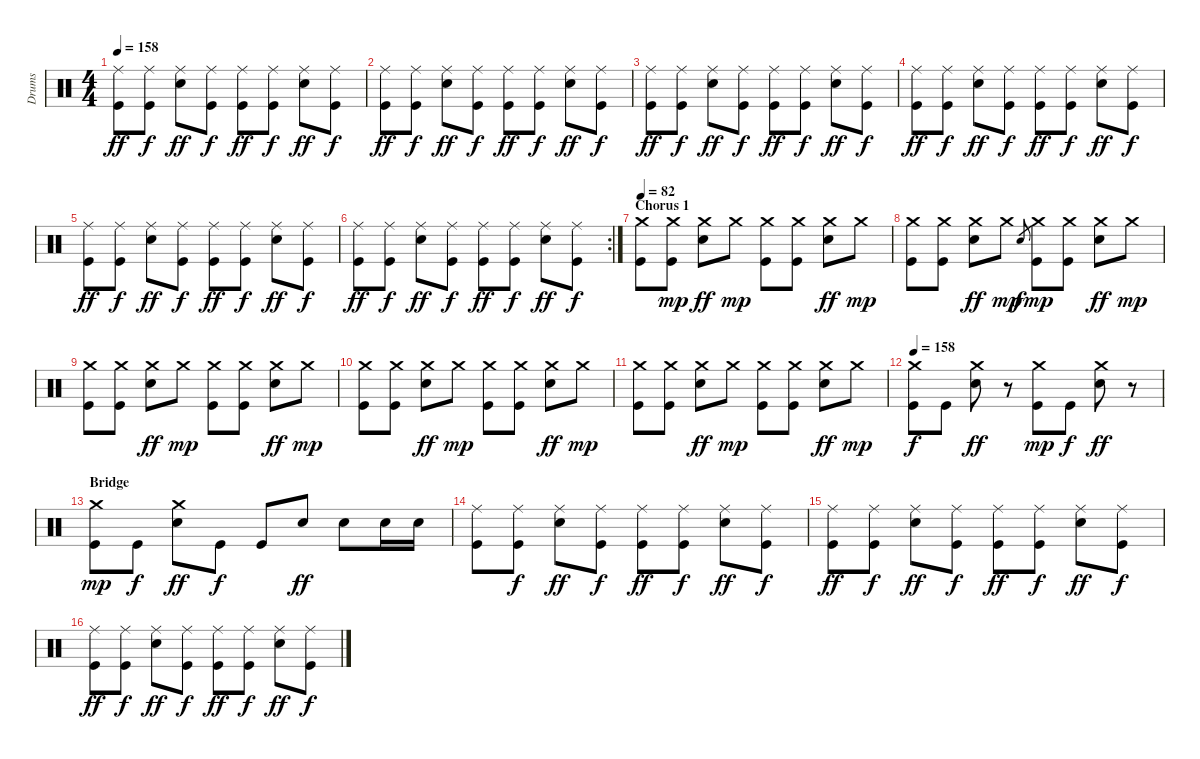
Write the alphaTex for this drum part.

\track ("Drums" "Drums") {instrument percussion}
\staff {score}
\articulation defaults
\ts (4 4)
\tempo 158
\clef neutral
\ks c
("Ride (middle)" "Kick (hit)").8{dy ff} ("Ride (middle)" "Kick (hit)").8{dy f} ("Ride (middle)" "Electric Snare (hit)").8{dy ff} ("Ride (middle)" "Kick (hit)").8{dy f} ("Ride (middle)" "Kick (hit)").8{dy ff} ("Ride (middle)" "Kick (hit)").8{dy f} ("Ride (middle)" "Electric Snare (hit)").8{dy ff} ("Ride (middle)" "Kick (hit)").8{dy f} |
("Ride (middle)" "Kick (hit)").8{dy ff} ("Ride (middle)" "Kick (hit)").8{dy f} ("Ride (middle)" "Electric Snare (hit)").8{dy ff} ("Ride (middle)" "Kick (hit)").8{dy f} ("Ride (middle)" "Kick (hit)").8{dy ff} ("Ride (middle)" "Kick (hit)").8{dy f} ("Ride (middle)" "Electric Snare (hit)").8{dy ff} ("Ride (middle)" "Kick (hit)").8{dy f} |
("Ride (middle)" "Kick (hit)").8{dy ff} ("Ride (middle)" "Kick (hit)").8{dy f} ("Ride (middle)" "Electric Snare (hit)").8{dy ff} ("Ride (middle)" "Kick (hit)").8{dy f} ("Ride (middle)" "Kick (hit)").8{dy ff} ("Ride (middle)" "Kick (hit)").8{dy f} ("Ride (middle)" "Electric Snare (hit)").8{dy ff} ("Ride (middle)" "Kick (hit)").8{dy f} |
("Ride (middle)" "Kick (hit)").8{dy ff} ("Ride (middle)" "Kick (hit)").8{dy f} ("Ride (middle)" "Electric Snare (hit)").8{dy ff} ("Ride (middle)" "Kick (hit)").8{dy f} ("Ride (middle)" "Kick (hit)").8{dy ff} ("Ride (middle)" "Kick (hit)").8{dy f} ("Ride (middle)" "Electric Snare (hit)").8{dy ff} ("Ride (middle)" "Kick (hit)").8{dy f} |
("Ride (middle)" "Kick (hit)").8{dy ff} ("Ride (middle)" "Kick (hit)").8{dy f} ("Ride (middle)" "Electric Snare (hit)").8{dy ff} ("Ride (middle)" "Kick (hit)").8{dy f} ("Ride (middle)" "Kick (hit)").8{dy ff} ("Ride (middle)" "Kick (hit)").8{dy f} ("Ride (middle)" "Electric Snare (hit)").8{dy ff} ("Ride (middle)" "Kick (hit)").8{dy f} |
\rc 2
("Ride (middle)" "Kick (hit)").8{dy ff} ("Ride (middle)" "Kick (hit)").8{dy f} ("Ride (middle)" "Electric Snare (hit)").8{dy ff} ("Ride (middle)" "Kick (hit)").8{dy f} ("Ride (middle)" "Kick (hit)").8{dy ff} ("Ride (middle)" "Kick (hit)").8{dy f} ("Ride (middle)" "Electric Snare (hit)").8{dy ff} ("Ride (middle)" "Kick (hit)").8{dy f} |
\section ("" "Chorus 1")
\tempo 82
("Crash medium (hit)" "Kick (hit)").8 ("Crash medium (hit)" "Kick (hit)").8{dy mp} ("Crash medium (hit)" "Electric Snare (hit)").8{dy ff} "Crash medium (hit)".8{dy mp} ("Crash medium (hit)" "Kick (hit)").8 ("Crash medium (hit)" "Kick (hit)").8 ("Crash medium (hit)" "Electric Snare (hit)").8{dy ff} "Crash medium (hit)".8{dy mp} |
("Crash medium (hit)" "Kick (hit)").8 ("Crash medium (hit)" "Kick (hit)").8 ("Crash medium (hit)" "Electric Snare (hit)").8{dy ff} "Crash medium (hit)".8{dy mp} "Electric Snare (hit)".8{gr dy f} ("Crash medium (hit)" "Kick (hit)").8{dy mp} ("Crash medium (hit)" "Kick (hit)").8 ("Crash medium (hit)" "Electric Snare (hit)").8{dy ff} "Crash medium (hit)".8{dy mp} |
("Crash medium (hit)" "Kick (hit)").8 ("Crash medium (hit)" "Kick (hit)").8 ("Crash medium (hit)" "Electric Snare (hit)").8{dy ff} "Crash medium (hit)".8{dy mp} ("Crash medium (hit)" "Kick (hit)").8 ("Crash medium (hit)" "Kick (hit)").8 ("Crash medium (hit)" "Electric Snare (hit)").8{dy ff} "Crash medium (hit)".8{dy mp} |
("Crash medium (hit)" "Kick (hit)").8 ("Crash medium (hit)" "Kick (hit)").8 ("Crash medium (hit)" "Electric Snare (hit)").8{dy ff} "Crash medium (hit)".8{dy mp} ("Crash medium (hit)" "Kick (hit)").8 ("Crash medium (hit)" "Kick (hit)").8 ("Crash medium (hit)" "Electric Snare (hit)").8{dy ff} "Crash medium (hit)".8{dy mp} |
("Crash medium (hit)" "Kick (hit)").8 ("Crash medium (hit)" "Kick (hit)").8 ("Crash medium (hit)" "Electric Snare (hit)").8{dy ff} "Crash medium (hit)".8{dy mp} ("Crash medium (hit)" "Kick (hit)").8 ("Crash medium (hit)" "Kick (hit)").8 ("Crash medium (hit)" "Electric Snare (hit)").8{dy ff} "Crash medium (hit)".8{dy mp} |
\tempo 158
("Crash medium (hit)" "Kick (hit)").8{dy f} "Kick (hit)".8 ("Crash medium (hit)" "Electric Snare (hit)").8{dy ff} r.8 ("Crash medium (hit)" "Kick (hit)").8{dy mp} "Kick (hit)".8{dy f} ("Crash medium (hit)" "Electric Snare (hit)").8{dy ff} r.8 |
\section ("" "Bridge")
("Crash medium (hit)" "Kick (hit)").8{dy mp} "Kick (hit)".8{dy f} ("Crash medium (hit)" "Electric Snare (hit)").8{dy ff} "Kick (hit)".8{dy f} "Kick (hit)".8 "Electric Snare (hit)".8{dy ff} "Electric Snare (hit)".8 "Electric Snare (hit)".16 "Electric Snare (hit)".16 |
("Ride (middle)" "Kick (hit)").8 ("Ride (middle)" "Kick (hit)").8{dy f} ("Ride (middle)" "Electric Snare (hit)").8{dy ff} ("Ride (middle)" "Kick (hit)").8{dy f} ("Ride (middle)" "Kick (hit)").8{dy ff} ("Ride (middle)" "Kick (hit)").8{dy f} ("Ride (middle)" "Electric Snare (hit)").8{dy ff} ("Ride (middle)" "Kick (hit)").8{dy f} |
("Ride (middle)" "Kick (hit)").8{dy ff} ("Ride (middle)" "Kick (hit)").8{dy f} ("Ride (middle)" "Electric Snare (hit)").8{dy ff} ("Ride (middle)" "Kick (hit)").8{dy f} ("Ride (middle)" "Kick (hit)").8{dy ff} ("Ride (middle)" "Kick (hit)").8{dy f} ("Ride (middle)" "Electric Snare (hit)").8{dy ff} ("Ride (middle)" "Kick (hit)").8{dy f} |
("Ride (middle)" "Kick (hit)").8{dy ff} ("Ride (middle)" "Kick (hit)").8{dy f} ("Ride (middle)" "Electric Snare (hit)").8{dy ff} ("Ride (middle)" "Kick (hit)").8{dy f} ("Ride (middle)" "Kick (hit)").8{dy ff} ("Ride (middle)" "Kick (hit)").8{dy f} ("Ride (middle)" "Electric Snare (hit)").8{dy ff} ("Ride (middle)" "Kick (hit)").8{dy f}
